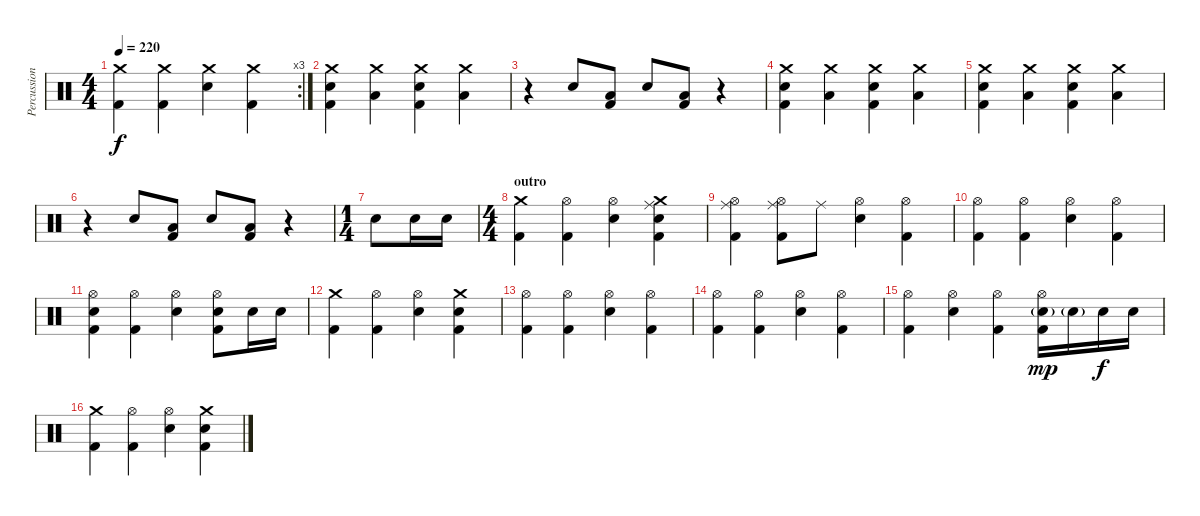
\track ("Percussions" "Percussion") {instrument percussion}
\staff {score}
\articulation defaults
\rc 3
\ts (4 4)
\tempo 220
\clef neutral
\ks c
("Crash medium (hit)" "Kick (hit) 2").4{dy f} ("Crash medium (hit)" "Kick (hit) 2").4 ("Snare (hit) 2" "Crash medium (hit)").4 ("Crash medium (hit)" "Kick (hit) 2").4 |
("Snare (hit) 2" "Crash medium (hit)" "Kick (hit) 2").4 ("Low Tom (hit)" "Crash medium (hit)").4 ("Snare (hit) 2" "Crash medium (hit)" "Kick (hit) 2").4 ("Low Tom (hit)" "Crash medium (hit)").4 |
r.4 "Snare (hit) 2".8 ("Low Tom (hit)" "Kick (hit) 2").8 "Snare (hit) 2".8 ("Low Tom (hit)" "Kick (hit) 2").8 r.4 |
("Snare (hit) 2" "Crash medium (hit)" "Kick (hit) 2").4 ("Low Tom (hit)" "Crash medium (hit)").4 ("Snare (hit) 2" "Crash medium (hit)" "Kick (hit) 2").4 ("Low Tom (hit)" "Crash medium (hit)").4 |
("Snare (hit) 2" "Crash medium (hit)" "Kick (hit) 2").4 ("Low Tom (hit)" "Crash medium (hit)").4 ("Snare (hit) 2" "Crash medium (hit)" "Kick (hit) 2").4 ("Low Tom (hit)" "Crash medium (hit)").4 |
r.4 "Snare (hit) 2".8 ("Low Tom (hit)" "Kick (hit) 2").8 "Snare (hit) 2".8 ("Low Tom (hit)" "Kick (hit) 2").8 r.4 |
\ts (1 4)
"Snare (hit) 2".8 "Snare (hit) 2".16 "Snare (hit) 2".16 |
\ts (4 4)
\section ("" "outro")
("Crash medium (hit)" "Kick (hit) 2").4 ("Hi-Hat (open)" "Kick (hit) 2").4 ("Snare (hit) 2" "Hi-Hat (open)").4 ("Snare (hit) 2" "Crash medium (hit)" "Ride (middle)" "Kick (hit) 2").4 |
("Hi-Hat (open)" "Ride (middle)" "Kick (hit) 2").4 ("Hi-Hat (open)" "Ride (middle)" "Kick (hit) 2").8 "Ride (middle)".8 ("Snare (hit) 2" "Hi-Hat (open)").4 ("Hi-Hat (open)" "Kick (hit) 2").4 |
("Hi-Hat (open)" "Kick (hit) 2").4 ("Hi-Hat (open)" "Kick (hit) 2").4 ("Snare (hit) 2" "Hi-Hat (open)").4 ("Hi-Hat (open)" "Kick (hit) 2").4 |
("Snare (hit) 2" "Hi-Hat (open)" "Kick (hit) 2").4 ("Hi-Hat (open)" "Kick (hit) 2").4 ("Snare (hit) 2" "Hi-Hat (open)").4 ("Snare (hit) 2" "Hi-Hat (open)" "Kick (hit) 2").8 "Snare (hit) 2".16 "Snare (hit) 2".16 |
("Crash medium (hit)" "Kick (hit) 2").4 ("Hi-Hat (open)" "Kick (hit) 2").4 ("Snare (hit) 2" "Hi-Hat (open)").4 ("Snare (hit) 2" "Crash medium (hit)" "Kick (hit) 2").4 |
("Hi-Hat (open)" "Kick (hit) 2").4 ("Hi-Hat (open)" "Kick (hit) 2").4 ("Snare (hit) 2" "Hi-Hat (open)").4 ("Hi-Hat (open)" "Kick (hit) 2").4 |
("Hi-Hat (open)" "Kick (hit) 2").4 ("Hi-Hat (open)" "Kick (hit) 2").4 ("Snare (hit) 2" "Hi-Hat (open)").4 ("Hi-Hat (open)" "Kick (hit) 2").4 |
("Hi-Hat (open)" "Kick (hit) 2").4 ("Snare (hit) 2" "Hi-Hat (open)").4 ("Hi-Hat (open)" "Kick (hit) 2").4 ("Snare (hit) 2"{g} "Hi-Hat (open)" "Kick (hit) 2").16{dy mp} "Snare (hit) 2"{g}.16 "Snare (hit) 2".16{dy f} "Snare (hit) 2".16 |
("Crash medium (hit)" "Kick (hit) 2").4 ("Hi-Hat (open)" "Kick (hit) 2").4 ("Snare (hit) 2" "Hi-Hat (open)").4 ("Snare (hit) 2" "Crash medium (hit)" "Kick (hit) 2").4
